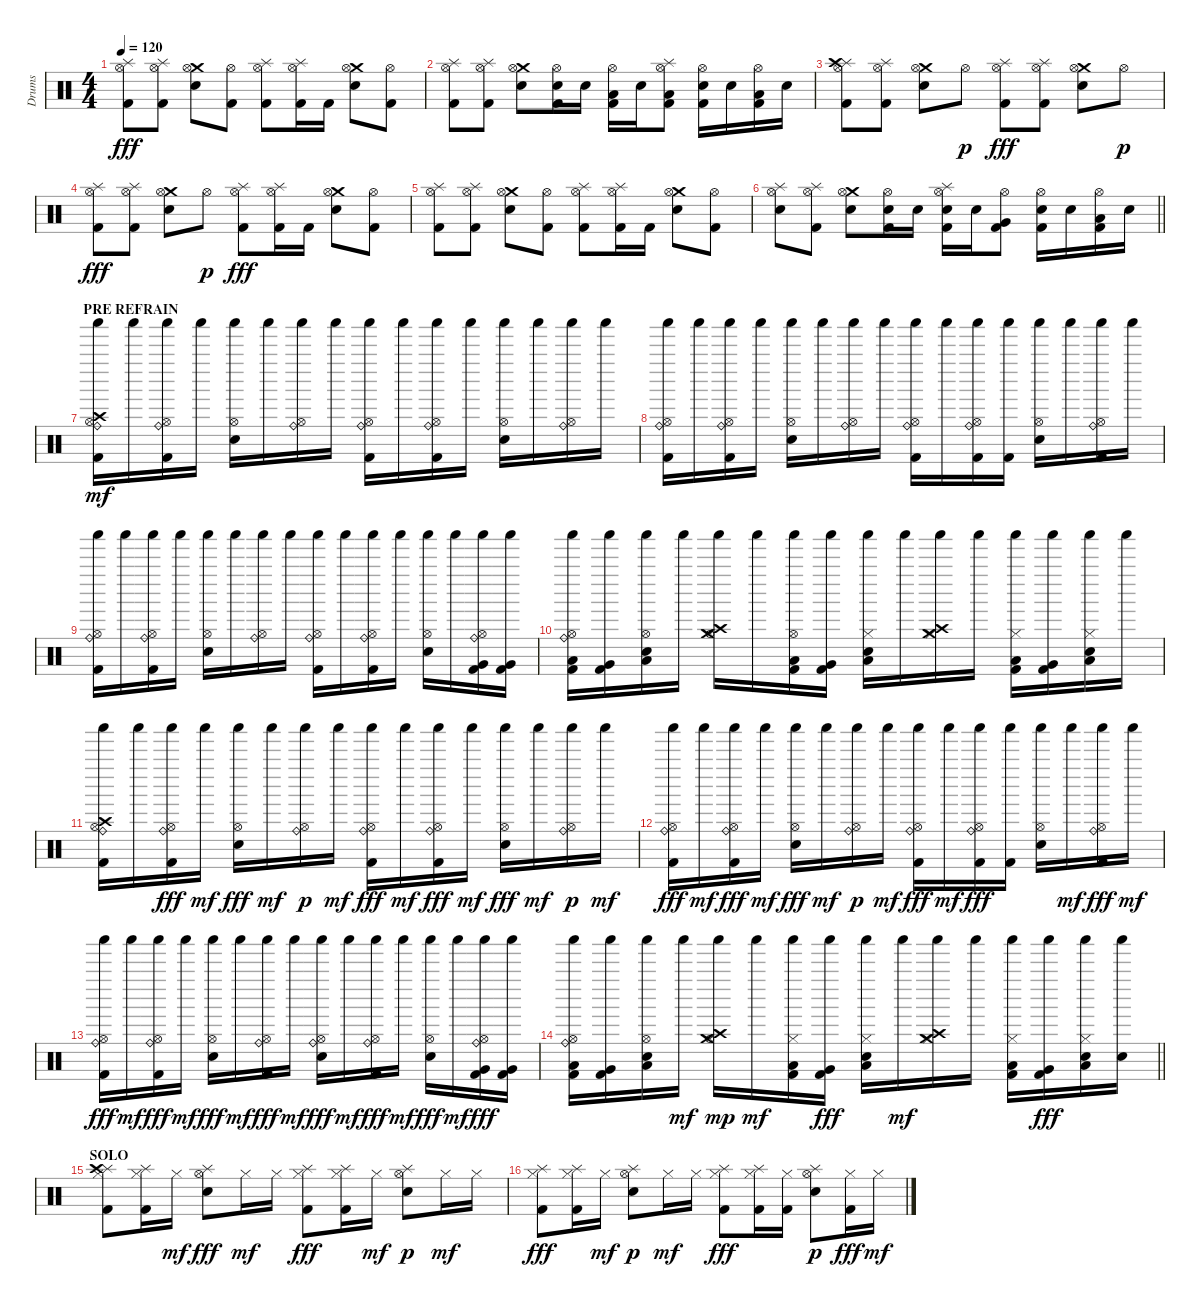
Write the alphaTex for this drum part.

\track ("Drums" "Drums") {instrument percussion}
\staff {score}
\articulation defaults
\ts (4 4)
\tempo 120
\clef neutral
\ks c
("Splash (hit)" "Hi-Hat (open)" "Kick (hit) 2").8{dy fff} ("Splash (hit)" "Hi-Hat (open)" "Kick (hit) 2").8 ("Crash medium (hit)" "Hi-Hat (open)" "Snare (hit) 2").8 ("Hi-Hat (open)" "Kick (hit) 2").8 ("Splash (hit)" "Hi-Hat (open)" "Kick (hit) 2").8 ("Splash (hit)" "Hi-Hat (open)" "Kick (hit) 2").16 "Kick (hit) 2".16 ("Crash medium (hit)" "Hi-Hat (open)" "Snare (hit) 2").8 ("Hi-Hat (open)" "Kick (hit) 2").8 |
("Splash (hit)" "Hi-Hat (open)" "Kick (hit) 2").8 ("Splash (hit)" "Hi-Hat (open)" "Kick (hit) 2").8 ("Crash medium (hit)" "Hi-Hat (open)" "Snare (hit) 2").8 ("Hi-Hat (open)" "Snare (hit) 2" "Kick (hit) 2").16 "Snare (hit) 2".16 ("Low Tom (hit)" "Hi-Hat (open)" "Kick (hit) 2").16 "Snare (hit) 2".16 ("Splash (hit)" "Low Tom (hit)" "Hi-Hat (open)" "Kick (hit) 2").8 ("Hi-Hat (open)" "Snare (hit) 2" "Kick (hit) 2").16 "Snare (hit) 2".16 ("Low Tom (hit)" "Hi-Hat (open)" "Kick (hit) 2").16 "Snare (hit) 2".16 |
("Splash (hit)" "Hi-Hat (open)" "Crash high (hit)" "Kick (hit) 2").8 ("Splash (hit)" "Hi-Hat (open)" "Kick (hit) 2").8 ("Crash medium (hit)" "Hi-Hat (open)" "Snare (hit) 2").8 "Hi-Hat (open)".8{dy p} ("Splash (hit)" "Hi-Hat (open)" "Kick (hit) 2").8{dy fff} ("Splash (hit)" "Hi-Hat (open)" "Kick (hit) 2").8 ("Crash medium (hit)" "Hi-Hat (open)" "Snare (hit) 2").8 "Hi-Hat (open)".8{dy p} |
("Splash (hit)" "Hi-Hat (open)" "Kick (hit) 2").8{dy fff} ("Splash (hit)" "Hi-Hat (open)" "Kick (hit) 2").8 ("Crash medium (hit)" "Hi-Hat (open)" "Snare (hit) 2").8 "Hi-Hat (open)".8{dy p} ("Splash (hit)" "Hi-Hat (open)" "Kick (hit) 2").8{dy fff} ("Splash (hit)" "Hi-Hat (open)" "Kick (hit) 2").16 "Kick (hit) 2".16 ("Crash medium (hit)" "Hi-Hat (open)" "Snare (hit) 2").8 ("Hi-Hat (open)" "Kick (hit) 2").8 |
("Splash (hit)" "Hi-Hat (open)" "Kick (hit) 2").8 ("Splash (hit)" "Hi-Hat (open)" "Kick (hit) 2").8 ("Crash medium (hit)" "Hi-Hat (open)" "Snare (hit) 2").8 ("Hi-Hat (open)" "Kick (hit) 2").8 ("Splash (hit)" "Hi-Hat (open)" "Kick (hit) 2").8 ("Splash (hit)" "Hi-Hat (open)" "Kick (hit) 2").16 "Kick (hit) 2".16 ("Crash medium (hit)" "Hi-Hat (open)" "Snare (hit) 2").8 ("Hi-Hat (open)" "Kick (hit) 2").8 |
\barLineRight lightlight
("Splash (hit)" "Hi-Hat (open)" "Snare (hit) 2").8 ("Splash (hit)" "Hi-Hat (open)" "Kick (hit) 2").8 ("Crash medium (hit)" "Hi-Hat (open)" "Snare (hit) 2").8 ("Hi-Hat (open)" "Snare (hit) 2" "Kick (hit) 2").16 "Snare (hit) 2".16 ("Splash (hit)" "Hi-Hat (open)" "Snare (hit) 2" "Kick (hit) 2").16 "Snare (hit) 2".16 ("Very Low Tom (hit)" "Hi-Hat (open)" "Kick (hit) 2").8 ("Hi-Hat (open)" "Snare (hit) 2" "Kick (hit) 2").16 "Snare (hit) 2".16 ("Low Tom (hit)" "Hi-Hat (open)" "Kick (hit) 2").16 "Snare (hit) 2".16 |
\section ("" "PRE REFRAIN")
("Ride (bell)" "Hi-Hat (open)" "Kick (hit) 2" "Crash high (hit)" "Shaker (hit)").16{dy mf} "Shaker (hit)".16 ("Ride (bell)" "Hi-Hat (open)" "Kick (hit) 2" "Shaker (hit)").16 "Shaker (hit)".16 ("Hi-Hat (open)" "Snare (hit) 2" "Shaker (hit)").16 "Shaker (hit)".16 ("Ride (bell)" "Hi-Hat (open)" "Shaker (hit)").16 "Shaker (hit)".16 ("Ride (bell)" "Hi-Hat (open)" "Kick (hit) 2" "Shaker (hit)").16 "Shaker (hit)".16 ("Ride (bell)" "Hi-Hat (open)" "Kick (hit) 2" "Shaker (hit)").16 "Shaker (hit)".16 ("Hi-Hat (open)" "Snare (hit) 2" "Shaker (hit)").16 "Shaker (hit)".16 ("Ride (bell)" "Hi-Hat (open)" "Shaker (hit)").16 "Shaker (hit)".16 |
("Ride (bell)" "Hi-Hat (open)" "Kick (hit) 2" "Shaker (hit)").16 "Shaker (hit)".16 ("Ride (bell)" "Hi-Hat (open)" "Kick (hit) 2" "Shaker (hit)").16 "Shaker (hit)".16 ("Hi-Hat (open)" "Snare (hit) 2" "Shaker (hit)").16 "Shaker (hit)".16 ("Ride (bell)" "Hi-Hat (open)" "Shaker (hit)").16 "Shaker (hit)".16 ("Ride (bell)" "Hi-Hat (open)" "Kick (hit) 2" "Shaker (hit)").16 "Shaker (hit)".16 ("Ride (bell)" "Hi-Hat (open)" "Kick (hit) 2" "Shaker (hit)").16 ("Kick (hit) 2" "Shaker (hit)").16 ("Hi-Hat (open)" "Snare (hit) 2" "Shaker (hit)").16 "Shaker (hit)".16 ("Ride (bell)" "Hi-Hat (open)" "Kick (hit) 2" "Shaker (hit)").16 "Shaker (hit)".16 |
("Ride (bell)" "Hi-Hat (open)" "Kick (hit) 2" "Shaker (hit)").16 "Shaker (hit)".16 ("Ride (bell)" "Hi-Hat (open)" "Kick (hit) 2" "Shaker (hit)").16 "Shaker (hit)".16 ("Hi-Hat (open)" "Snare (hit) 2" "Shaker (hit)").16 "Shaker (hit)".16 ("Ride (bell)" "Hi-Hat (open)" "Shaker (hit)").16 "Shaker (hit)".16 ("Ride (bell)" "Hi-Hat (open)" "Kick (hit) 2" "Shaker (hit)").16 "Shaker (hit)".16 ("Ride (bell)" "Hi-Hat (open)" "Kick (hit) 2" "Shaker (hit)").16 "Shaker (hit)".16 ("Hi-Hat (open)" "Snare (hit) 2" "Shaker (hit)").16 "Shaker (hit)".16 ("Ride (bell)" "Hi-Hat (open)" "Kick (hit) 2" "Very Low Tom (hit)" "Shaker (hit)").16 ("Very Low Tom (hit)" "Kick (hit) 2" "Shaker (hit)").16 |
("Ride (bell)" "Hi-Hat (open)" "Kick (hit) 2" "Low Tom (hit)" "Shaker (hit)").16 ("Kick (hit) 2" "Very Low Tom (hit)" "Shaker (hit)").16 ("Hi-Hat (open)" "Snare (hit) 2" "Low Floor Tom (hit)" "Shaker (hit)").16 "Shaker (hit)".16 ("Hi-Hat (open)" "Crash medium (hit)" "Crash high (hit)" "Shaker (hit)").16 "Shaker (hit)".16 ("Hi-Hat (open)" "Low Tom (hit)" "Kick (hit) 2" "Shaker (hit)").16 ("Very Low Tom (hit)" "Kick (hit) 2" "Shaker (hit)").16 ("Hi-Hat (closed)" "Low Floor Tom (hit)" "Snare (hit) 2" "Shaker (hit)").16 "Shaker (hit)".16 ("Crash medium (hit)" "Crash high (hit)" "Hi-Hat (closed)" "Shaker (hit)").16 "Shaker (hit)".16 ("Low Tom (hit)" "Kick (hit) 2" "Hi-Hat (closed)" "Shaker (hit)").16 ("Very Low Tom (hit)" "Kick (hit) 2" "Shaker (hit)").16 ("Hi-Hat (closed)" "Low Floor Tom (hit)" "Snare (hit) 2" "Shaker (hit)").16 "Shaker (hit)".16 |
("Ride (bell)" "Shaker (hit)" "Hi-Hat (open)" "Kick (hit) 2" "Crash high (hit)").16 "Shaker (hit)".16 ("Ride (bell)" "Shaker (hit)" "Hi-Hat (open)" "Kick (hit) 2").16{dy fff} "Shaker (hit)".16{dy mf} ("Shaker (hit)" "Hi-Hat (open)" "Snare (hit) 2").16{dy fff} "Shaker (hit)".16{dy mf} ("Ride (bell)" "Shaker (hit)" "Hi-Hat (open)").16{dy p} "Shaker (hit)".16{dy mf} ("Ride (bell)" "Shaker (hit)" "Hi-Hat (open)" "Kick (hit) 2").16{dy fff} "Shaker (hit)".16{dy mf} ("Ride (bell)" "Shaker (hit)" "Hi-Hat (open)" "Kick (hit) 2").16{dy fff} "Shaker (hit)".16{dy mf} ("Shaker (hit)" "Hi-Hat (open)" "Snare (hit) 2").16{dy fff} "Shaker (hit)".16{dy mf} ("Ride (bell)" "Shaker (hit)" "Hi-Hat (open)").16{dy p} "Shaker (hit)".16{dy mf} |
("Ride (bell)" "Shaker (hit)" "Hi-Hat (open)" "Kick (hit) 2").16{dy fff} "Shaker (hit)".16{dy mf} ("Ride (bell)" "Shaker (hit)" "Hi-Hat (open)" "Kick (hit) 2").16{dy fff} "Shaker (hit)".16{dy mf} ("Shaker (hit)" "Hi-Hat (open)" "Snare (hit) 2").16{dy fff} "Shaker (hit)".16{dy mf} ("Ride (bell)" "Shaker (hit)" "Hi-Hat (open)").16{dy p} "Shaker (hit)".16{dy mf} ("Ride (bell)" "Shaker (hit)" "Hi-Hat (open)" "Kick (hit) 2").16{dy fff} "Shaker (hit)".16{dy mf} ("Ride (bell)" "Shaker (hit)" "Hi-Hat (open)" "Kick (hit) 2").16{dy fff} ("Shaker (hit)" "Kick (hit) 2").16 ("Shaker (hit)" "Hi-Hat (open)" "Snare (hit) 2").16 "Shaker (hit)".16{dy mf} ("Ride (bell)" "Shaker (hit)" "Hi-Hat (open)" "Kick (hit) 2").16{dy fff} "Shaker (hit)".16{dy mf} |
("Ride (bell)" "Shaker (hit)" "Hi-Hat (open)" "Kick (hit) 2").16{dy fff} "Shaker (hit)".16{dy mf} ("Ride (bell)" "Shaker (hit)" "Hi-Hat (open)" "Kick (hit) 2").16{dy fff} "Shaker (hit)".16{dy mf} ("Shaker (hit)" "Hi-Hat (open)" "Snare (hit) 2").16{dy fff} "Shaker (hit)".16{dy mf} ("Ride (bell)" "Shaker (hit)" "Hi-Hat (open)" "Kick (hit) 2").16{dy fff} "Shaker (hit)".16{dy mf} ("Ride (bell)" "Shaker (hit)" "Hi-Hat (open)" "Snare (hit) 2").16{dy fff} "Shaker (hit)".16{dy mf} ("Ride (bell)" "Shaker (hit)" "Hi-Hat (open)" "Kick (hit) 2").16{dy fff} "Shaker (hit)".16{dy mf} ("Shaker (hit)" "Hi-Hat (open)" "Snare (hit) 2").16{dy fff} "Shaker (hit)".16{dy mf} ("Ride (bell)" "Shaker (hit)" "Hi-Hat (open)" "Kick (hit) 2" "Very Low Tom (hit)").16{dy fff} ("Shaker (hit)" "Very Low Tom (hit)" "Kick (hit) 2").16 |
\barLineRight lightlight
("Ride (bell)" "Shaker (hit)" "Hi-Hat (open)" "Kick (hit) 2" "Low Tom (hit)").16 ("Shaker (hit)" "Kick (hit) 2" "Very Low Tom (hit)").16 ("Shaker (hit)" "Hi-Hat (open)" "Snare (hit) 2" "Low Floor Tom (hit)").16 "Shaker (hit)".16{dy mf} ("Shaker (hit)" "Hi-Hat (open)" "Crash medium (hit)" "Crash high (hit)").16{dy mp} "Shaker (hit)".16{dy mf} ("Shaker (hit)" "Low Tom (hit)" "Kick (hit) 2" "Hi-Hat (closed)").16 ("Shaker (hit)" "Very Low Tom (hit)" "Kick (hit) 2").16{dy fff} ("Shaker (hit)" "Hi-Hat (closed)" "Low Floor Tom (hit)" "Snare (hit) 2").16 "Shaker (hit)".16{dy mf} ("Shaker (hit)" "Crash medium (hit)" "Crash high (hit)" "Hi-Hat (closed)").16 "Shaker (hit)".16 ("Shaker (hit)" "Low Tom (hit)" "Kick (hit) 2" "Hi-Hat (closed)").16 ("Shaker (hit)" "Very Low Tom (hit)" "Kick (hit) 2").16{dy fff} ("Shaker (hit)" "Hi-Hat (closed)" "Low Floor Tom (hit)" "Snare (hit) 2").16 ("Shaker (hit)" "Snare (hit) 2").16 |
\section ("" "SOLO")
("Splash (hit)" "Hi-Hat (closed)" "Crash high (hit)" "Kick (hit) 2").8 ("Splash (hit)" "Hi-Hat (closed)" "Kick (hit) 2").16 "Hi-Hat (closed)".16{dy mf} ("Hi-Hat (open)" "Snare (hit) 2" "Splash (hit)").8{dy fff} "Hi-Hat (closed)".16{dy mf} "Hi-Hat (closed)".16 ("Splash (hit)" "Hi-Hat (closed)" "Kick (hit) 2").8{dy fff} ("Splash (hit)" "Hi-Hat (closed)" "Kick (hit) 2").16 "Hi-Hat (closed)".16{dy mf} ("Hi-Hat (open)" "Snare (hit) 2" "Splash (hit)").8{dy p} "Hi-Hat (closed)".16{dy mf} "Hi-Hat (closed)".16 |
("Splash (hit)" "Hi-Hat (closed)" "Kick (hit) 2").8{dy fff} ("Splash (hit)" "Hi-Hat (closed)" "Kick (hit) 2").16 "Hi-Hat (closed)".16{dy mf} ("Hi-Hat (open)" "Snare (hit) 2" "Splash (hit)").8{dy p} "Hi-Hat (closed)".16{dy mf} "Hi-Hat (closed)".16 ("Splash (hit)" "Hi-Hat (closed)" "Kick (hit) 2").8{dy fff} ("Splash (hit)" "Hi-Hat (closed)" "Kick (hit) 2").16 ("Hi-Hat (closed)" "Kick (hit) 2").16 ("Hi-Hat (open)" "Snare (hit) 2" "Splash (hit)").8{dy p} ("Hi-Hat (closed)" "Kick (hit) 2").16{dy fff} "Hi-Hat (closed)".16{dy mf}
